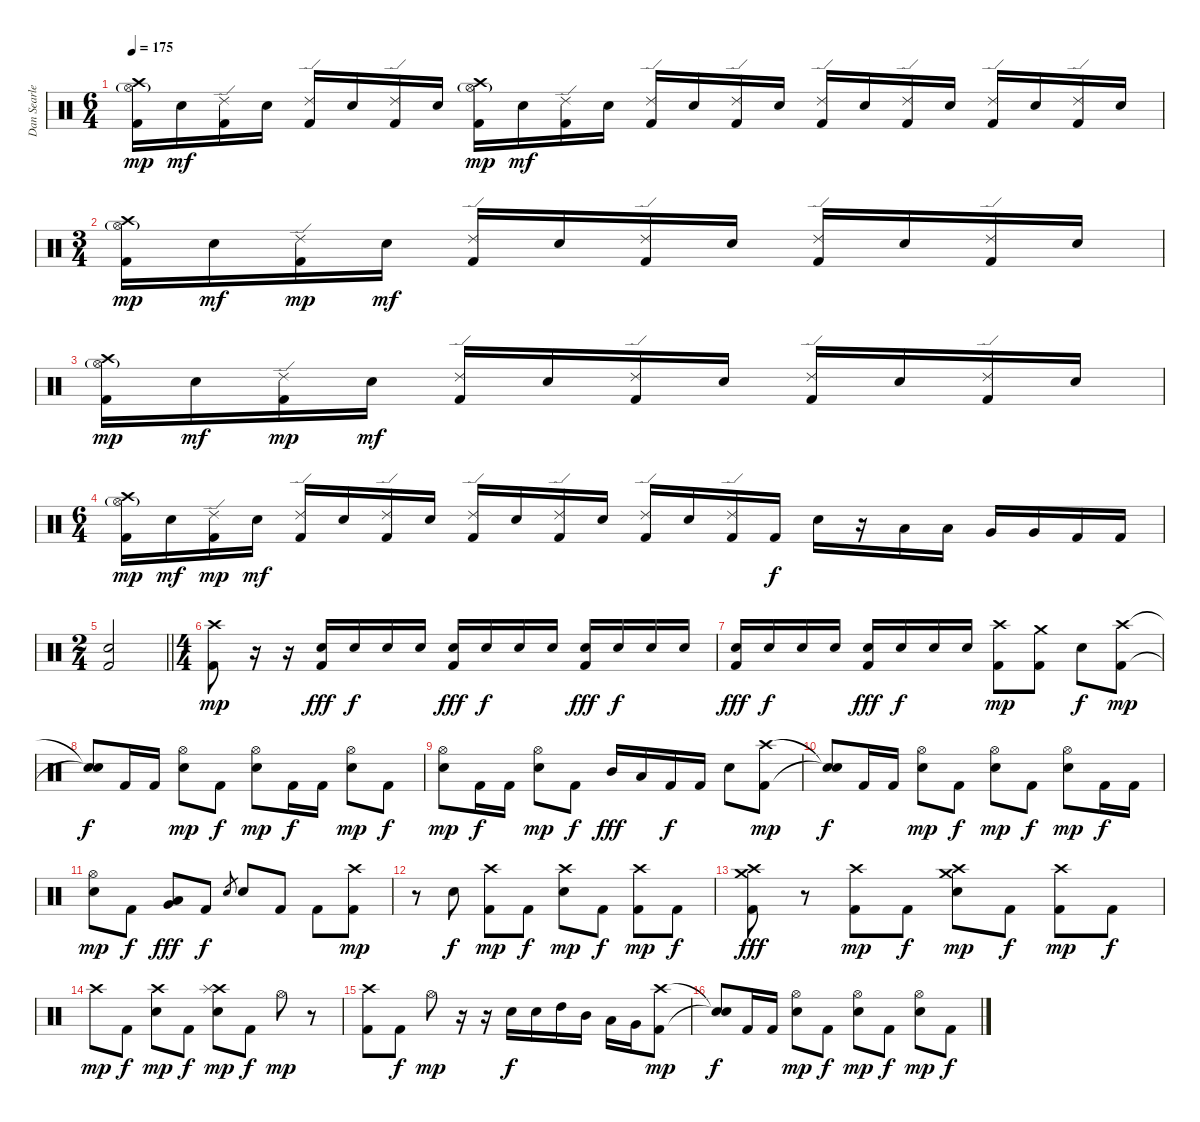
\track ("Dan Searle" "Dan Searle") {instrument percussion}
\staff {score}
\articulation defaults
\ts (6 4)
\tempo 175
\clef neutral
\ks c
("Crash high (hit)" "Hi-Hat (open)"{g} "Kick (hit) 2").16{dy mp} "Electric Snare (hit)".16{dy mf} ("Ride (edge) 2" "Kick (hit) 2").16 "Electric Snare (hit)".16 ("Ride (edge) 2" "Kick (hit) 2").16 "Electric Snare (hit)".16 ("Ride (edge) 2" "Kick (hit) 2").16 "Electric Snare (hit)".16 ("Crash high (hit)" "Hi-Hat (open)"{g} "Kick (hit) 2").16{dy mp} "Electric Snare (hit)".16{dy mf} ("Ride (edge) 2" "Kick (hit) 2").16 "Electric Snare (hit)".16 ("Ride (edge) 2" "Kick (hit) 2").16 "Electric Snare (hit)".16 ("Ride (edge) 2" "Kick (hit) 2").16 "Electric Snare (hit)".16 ("Ride (edge) 2" "Kick (hit) 2").16 "Electric Snare (hit)".16 ("Ride (edge) 2" "Kick (hit) 2").16 "Electric Snare (hit)".16 ("Ride (edge) 2" "Kick (hit) 2").16 "Electric Snare (hit)".16 ("Ride (edge) 2" "Kick (hit) 2").16 "Electric Snare (hit)".16 |
\ts (3 4)
("Crash high (hit)" "Hi-Hat (open)"{g} "Kick (hit) 2").16{dy mp} "Electric Snare (hit)".16{dy mf} ("Ride (edge) 2" "Kick (hit) 2").16{dy mp} "Electric Snare (hit)".16{dy mf} ("Ride (edge) 2" "Kick (hit) 2").16 "Electric Snare (hit)".16 ("Ride (edge) 2" "Kick (hit) 2").16 "Electric Snare (hit)".16 ("Ride (edge) 2" "Kick (hit) 2").16 "Electric Snare (hit)".16 ("Ride (edge) 2" "Kick (hit) 2").16 "Electric Snare (hit)".16 |
("Crash high (hit)" "Hi-Hat (open)"{g} "Kick (hit) 2").16{dy mp} "Electric Snare (hit)".16{dy mf} ("Ride (edge) 2" "Kick (hit) 2").16{dy mp} "Electric Snare (hit)".16{dy mf} ("Ride (edge) 2" "Kick (hit) 2").16 "Electric Snare (hit)".16 ("Ride (edge) 2" "Kick (hit) 2").16 "Electric Snare (hit)".16 ("Ride (edge) 2" "Kick (hit) 2").16 "Electric Snare (hit)".16 ("Ride (edge) 2" "Kick (hit) 2").16 "Electric Snare (hit)".16 |
\ts (6 4)
("Crash high (hit)" "Hi-Hat (open)"{g} "Kick (hit) 2").16{dy mp} "Electric Snare (hit)".16{dy mf} ("Ride (edge) 2" "Kick (hit) 2").16{dy mp} "Electric Snare (hit)".16{dy mf} ("Ride (edge) 2" "Kick (hit) 2").16 "Electric Snare (hit)".16 ("Ride (edge) 2" "Kick (hit) 2").16 "Electric Snare (hit)".16 ("Ride (edge) 2" "Kick (hit) 2").16 "Electric Snare (hit)".16 ("Ride (edge) 2" "Kick (hit) 2").16 "Electric Snare (hit)".16 ("Ride (edge) 2" "Kick (hit) 2").16 "Electric Snare (hit)".16 ("Ride (edge) 2" "Kick (hit) 2").16 "Kick (hit) 2".16{dy f} "Electric Snare (hit)".16 r.16 "Low Tom (hit)".16 "Low Tom (hit)".16 "Very Low Tom (hit)".16 "Very Low Tom (hit)".16 "Kick (hit) 2".16 "Kick (hit) 2".16 |
\ts (2 4)
\barLineRight lightlight
("Electric Snare (hit)" "Kick (hit) 2").2 |
\ts (4 4)
("Crash high (hit)" "Kick (hit) 2").8{dy mp} r.16 r.16 ("Electric Snare (hit)" "Kick (hit) 2").16{dy fff} "Electric Snare (hit)".16{dy f} "Electric Snare (hit)".16 "Electric Snare (hit)".16 ("Electric Snare (hit)" "Kick (hit) 2").16{dy fff} "Electric Snare (hit)".16{dy f} "Electric Snare (hit)".16 "Electric Snare (hit)".16 ("Electric Snare (hit)" "Kick (hit) 2").16{dy fff} "Electric Snare (hit)".16{dy f} "Electric Snare (hit)".16 "Electric Snare (hit)".16 |
("Electric Snare (hit)" "Kick (hit) 2").16{dy fff} "Electric Snare (hit)".16{dy f} "Electric Snare (hit)".16 "Electric Snare (hit)".16 ("Electric Snare (hit)" "Kick (hit) 2").16{dy fff} "Electric Snare (hit)".16{dy f} "Electric Snare (hit)".16 "Electric Snare (hit)".16 ("Crash high (hit)" "Kick (hit) 2").8{dy mp} ("Crash medium (hit)" "Kick (hit) 2").8 "Electric Snare (hit)".8{dy f} ("Crash high (hit)" "Kick (hit) 2").8{dy mp} |
("Snare (hit)"{t} "Snare (hit)"{t}).8{dy f} "Kick (hit) 2".16 "Kick (hit) 2".16 ("Hi-Hat (open)" "Electric Snare (hit)").8{dy mp} "Kick (hit) 2".8{dy f} ("Hi-Hat (open)" "Electric Snare (hit)").8{dy mp} "Kick (hit) 2".16{dy f} "Kick (hit) 2".16 ("Hi-Hat (open)" "Electric Snare (hit)").8{dy mp} "Kick (hit) 2".8{dy f} |
("Hi-Hat (open)" "Electric Snare (hit)").8{dy mp} "Kick (hit) 2".16{dy f} "Kick (hit) 2".16 ("Hi-Hat (open)" "Electric Snare (hit)").8{dy mp} "Kick (hit) 2".8{dy f} "Mid Tom (hit)".16{dy fff} "Low Tom (hit)".16 "Kick (hit) 2".16{dy f} "Kick (hit) 2".16 "Electric Snare (hit)".8 ("Crash high (hit)" "Kick (hit) 2").8{dy mp} |
("Snare (hit)"{t} "Snare (hit)"{t}).8{dy f} "Kick (hit) 2".16 "Kick (hit) 2".16 ("Hi-Hat (open)" "Electric Snare (hit)").8{dy mp} "Kick (hit) 2".8{dy f} ("Hi-Hat (open)" "Electric Snare (hit)").8{dy mp} "Kick (hit) 2".8{dy f} ("Hi-Hat (open)" "Electric Snare (hit)").8{dy mp} "Kick (hit) 2".16{dy f} "Kick (hit) 2".16 |
("Hi-Hat (open)" "Electric Snare (hit)").8{dy mp} "Kick (hit) 2".8{dy f} ("Low Tom (hit)" "Very Low Tom (hit)").8{dy fff} "Kick (hit) 2".8{dy f} "Electric Snare (hit)".8{gr} "Electric Snare (hit)".8 "Kick (hit) 2".8 "Kick (hit) 2".8 ("Crash high (hit)" "Kick (hit) 2").8{dy mp} |
r.8 "Electric Snare (hit)".8{dy f} ("Crash high (hit)" "Kick (hit) 2").8{dy mp} "Kick (hit) 2".8{dy f} ("Crash high (hit)" "Electric Snare (hit)").8{dy mp} "Kick (hit) 2".8{dy f} ("Crash high (hit)" "Kick (hit) 2").8{dy mp} "Kick (hit) 2".8{dy f} |
("Crash high (hit)" "Crash medium (hit)" "Kick (hit) 2").8{dy fff} r.8 ("Crash high (hit)" "Kick (hit) 2").8{dy mp} "Kick (hit) 2".8{dy f} ("Crash high (hit)" "Crash medium (hit)" "Electric Snare (hit)").8{dy mp} "Kick (hit) 2".8{dy f} ("Crash high (hit)" "Kick (hit) 2").8{dy mp} "Kick (hit) 2".8{dy f} |
"Crash high (hit)".8{dy mp} "Kick (hit) 2".8{dy f} ("Crash high (hit)" "Electric Snare (hit)").8{dy mp} "Kick (hit) 2".8{dy f} ("Crash high (hit)" "Splash (hit)" "Electric Snare (hit)").8{dy mp} "Kick (hit) 2".8{dy f} "Hi-Hat (open)".8{dy mp} r.8 |
("Crash high (hit)" "Kick (hit) 2").8 "Kick (hit) 2".8{dy f} "Hi-Hat (open)".8{dy mp} r.16 r.16 "Electric Snare (hit)".16{dy f} "Electric Snare (hit)".16 "High Tom (hit)".16 "Mid Tom (hit)".16 "Low Tom (hit)".16 "Very Low Tom (hit)".16 ("Crash high (hit)" "Kick (hit) 2").8{dy mp} |
("Snare (hit)"{t} "Snare (hit)"{t}).8{dy f} "Kick (hit) 2".16 "Kick (hit) 2".16 ("Hi-Hat (open)" "Electric Snare (hit)").8{dy mp} "Kick (hit) 2".8{dy f} ("Hi-Hat (open)" "Electric Snare (hit)").8{dy mp} "Kick (hit) 2".8{dy f} ("Hi-Hat (open)" "Electric Snare (hit)").8{dy mp} "Kick (hit) 2".8{dy f}
